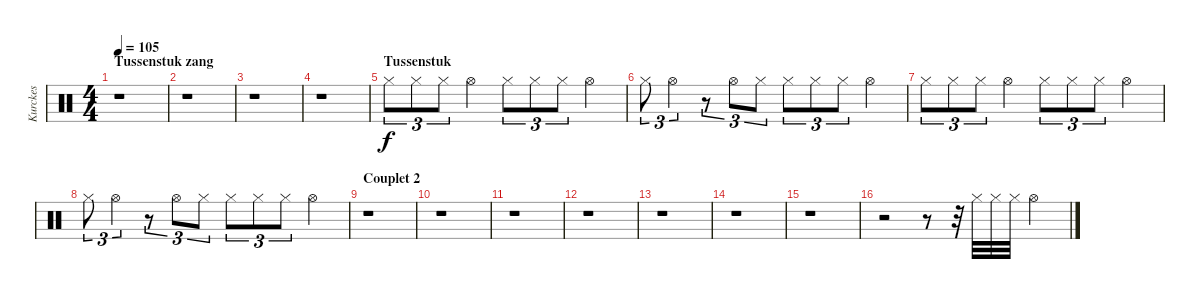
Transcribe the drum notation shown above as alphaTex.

\track ("Kurckes" "Kurckes") {instrument percussion}
\staff {score}
\articulation defaults
\ts (4 4)
\section ("" "Tussenstuk zang")
\tempo 105
\clef neutral
\ks c
r.1{dy f} |
r.1 |
r.1 |
r.1 |
\section ("" "Tussenstuk")
"Hi-Hat (closed)".8{tu (3 2)} "Hi-Hat (closed)".8{tu (3 2)} "Hi-Hat (closed)".8{tu (3 2)} "Hi-Hat (open)".4 "Hi-Hat (closed)".8{tu (3 2)} "Hi-Hat (closed)".8{tu (3 2)} "Hi-Hat (closed)".8{tu (3 2)} "Hi-Hat (open)".4 |
"Hi-Hat (closed)".8{tu (3 2)} "Hi-Hat (open)".4{tu (3 2)} r.8{tu (3 2)} "Hi-Hat (open)".8{tu (3 2)} "Hi-Hat (closed)".8{tu (3 2)} "Hi-Hat (closed)".8{tu (3 2)} "Hi-Hat (closed)".8{tu (3 2)} "Hi-Hat (closed)".8{tu (3 2)} "Hi-Hat (open)".4 |
"Hi-Hat (closed)".8{tu (3 2)} "Hi-Hat (closed)".8{tu (3 2)} "Hi-Hat (closed)".8{tu (3 2)} "Hi-Hat (open)".4 "Hi-Hat (closed)".8{tu (3 2)} "Hi-Hat (closed)".8{tu (3 2)} "Hi-Hat (closed)".8{tu (3 2)} "Hi-Hat (open)".4 |
"Hi-Hat (closed)".8{tu (3 2)} "Hi-Hat (open)".4{tu (3 2)} r.8{tu (3 2)} "Hi-Hat (open)".8{tu (3 2)} "Hi-Hat (closed)".8{tu (3 2)} "Hi-Hat (closed)".8{tu (3 2)} "Hi-Hat (closed)".8{tu (3 2)} "Hi-Hat (closed)".8{tu (3 2)} "Hi-Hat (open)".4 |
\section ("" "Couplet 2")
r.1 |
r.1 |
r.1 |
r.1 |
r.1 |
r.1 |
r.1 |
r.2 r.8 r.32 "Hi-Hat (closed)".32 "Hi-Hat (closed)".32 "Hi-Hat (closed)".32 "Hi-Hat (open)".4
